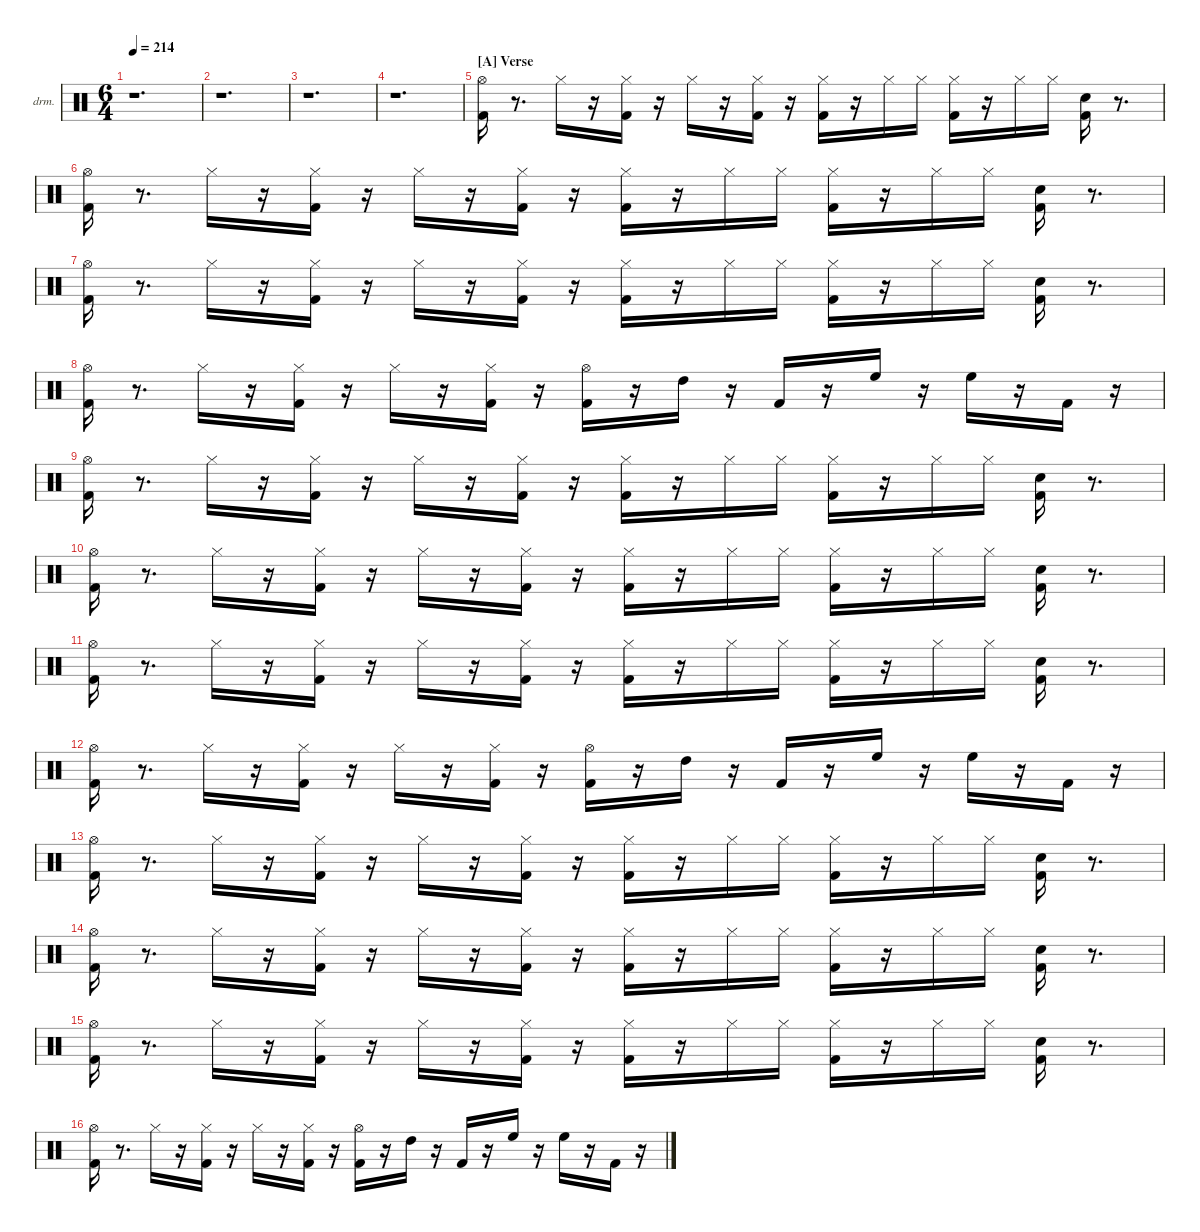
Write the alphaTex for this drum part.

\hideDynamics
\bracketExtendMode nobrackets
\firstSystemTrackNameOrientation horizontal
\otherSystemsTrackNameOrientation horizontal
\track ("EZdrummer 3" "drm.") {instrument percussion}
\staff {score}
\articulation defaults
\ts (6 4)
\tempo 214
\clef neutral
\ks aminor
r.1{d dy fff beam Down} |
r.1{d beam Down} |
r.1{d beam Down} |
r.1{d beam Down} |
\section ("A" "Verse")
("Kick (hit) 2" "Hi-Hat (open)"{acc #}).16{beam Down} r.8{d beam Down} "Hi-Hat (closed)"{acc #}.16{dy f beam Down} r.16{beam Down} ("Kick (hit) 2" "Hi-Hat (closed)"{acc #}).16{dy ff beam Down} r.16{beam Down} "Hi-Hat (closed)"{acc #}.16{beam Down} r.16{beam Down} ("Kick (hit) 2" "Hi-Hat (closed)"{acc #}).16{beam Down} r.16{beam Down} ("Kick (hit) 2" "Hi-Hat (closed)"{acc #}).16{beam Down} r.16{beam Down} "Hi-Hat (closed)"{acc #}.16{dy f beam Down} "Hi-Hat (closed)"{acc #}.16{dy mp beam Down} ("Kick (hit) 2" "Hi-Hat (closed)"{acc #}).16{dy ff beam Down} r.16{beam Down} "Hi-Hat (closed)"{acc #}.16{dy f beam Down} "Hi-Hat (closed)"{acc #}.16{dy mf beam Down} ("Kick (hit) 2" "Snare (hit) 2").16{dy ff beam Down} r.8{d beam Down} |
("Kick (hit) 2" "Hi-Hat (open)"{acc #}).16{beam Down} r.8{d beam Down} "Hi-Hat (closed)"{acc #}.16{dy f beam Down} r.16{beam Down} ("Kick (hit) 2" "Hi-Hat (closed)"{acc #}).16{dy ff beam Down} r.16{beam Down} "Hi-Hat (closed)"{acc #}.16{beam Down} r.16{beam Down} ("Kick (hit) 2" "Hi-Hat (closed)"{acc #}).16{beam Down} r.16{beam Down} ("Kick (hit) 2" "Hi-Hat (closed)"{acc #}).16{beam Down} r.16{beam Down} "Hi-Hat (closed)"{acc #}.16{dy f beam Down} "Hi-Hat (closed)"{acc #}.16{dy mp beam Down} ("Kick (hit) 2" "Hi-Hat (closed)"{acc #}).16{dy ff beam Down} r.16{beam Down} "Hi-Hat (closed)"{acc #}.16{dy f beam Down} "Hi-Hat (closed)"{acc #}.16{dy mf beam Down} ("Kick (hit) 2" "Snare (hit) 2").16{dy ff beam Down} r.8{d beam Down} |
("Kick (hit) 2" "Hi-Hat (open)"{acc #}).16{beam Down} r.8{d beam Down} "Hi-Hat (closed)"{acc #}.16{dy f beam Down} r.16{beam Down} ("Kick (hit) 2" "Hi-Hat (closed)"{acc #}).16{dy ff beam Down} r.16{beam Down} "Hi-Hat (closed)"{acc #}.16{beam Down} r.16{beam Down} ("Kick (hit) 2" "Hi-Hat (closed)"{acc #}).16{beam Down} r.16{beam Down} ("Kick (hit) 2" "Hi-Hat (closed)"{acc #}).16{beam Down} r.16{beam Down} "Hi-Hat (closed)"{acc #}.16{dy f beam Down} "Hi-Hat (closed)"{acc #}.16{dy mp beam Down} ("Kick (hit) 2" "Hi-Hat (closed)"{acc #}).16{dy ff beam Down} r.16{beam Down} "Hi-Hat (closed)"{acc #}.16{dy f beam Down} "Hi-Hat (closed)"{acc #}.16{dy mf beam Down} ("Kick (hit) 2" "Snare (hit) 2").16{dy ff beam Down} r.8{d beam Down} |
("Kick (hit) 2" "Hi-Hat (open)"{acc #}).16{beam Down} r.8{d beam Down} "Hi-Hat (closed)"{acc #}.16{dy f beam Down} r.16{beam Down} ("Kick (hit) 2" "Hi-Hat (closed)"{acc #}).16{dy ff beam Down} r.16{beam Down} "Hi-Hat (closed)"{acc #}.16{beam Down} r.16{beam Down} ("Kick (hit) 2" "Hi-Hat (closed)"{acc #}).16{beam Down} r.16{beam Down} ("Kick (hit) 2" "Hi-Hat (open)"{acc #}).16{beam Down} r.16{beam Down} "High Tom (hit)".16{beam Down} r.16{beam Down} "Kick (hit) 2".16{beam Up} r.16{beam Up} "High Floor Tom (hit)".16{dy mf beam Down} r.16{beam Down} "High Floor Tom (hit)".16{dy fff beam Down} r.16{beam Down} "Kick (hit) 2".16{dy mf beam Up} r.16{beam Up} |
("Kick (hit) 2" "Hi-Hat (open)"{acc #}).16{dy ff beam Down} r.8{d beam Down} "Hi-Hat (closed)"{acc #}.16{dy f beam Down} r.16{beam Down} ("Kick (hit) 2" "Hi-Hat (closed)"{acc #}).16{dy ff beam Down} r.16{beam Down} "Hi-Hat (closed)"{acc #}.16{beam Down} r.16{beam Down} ("Kick (hit) 2" "Hi-Hat (closed)"{acc #}).16{beam Down} r.16{beam Down} ("Kick (hit) 2" "Hi-Hat (closed)"{acc #}).16{beam Down} r.16{beam Down} "Hi-Hat (closed)"{acc #}.16{dy f beam Down} "Hi-Hat (closed)"{acc #}.16{dy mp beam Down} ("Kick (hit) 2" "Hi-Hat (closed)"{acc #}).16{dy ff beam Down} r.16{beam Down} "Hi-Hat (closed)"{acc #}.16{dy f beam Down} "Hi-Hat (closed)"{acc #}.16{dy mf beam Down} ("Kick (hit) 2" "Snare (hit) 2").16{dy ff beam Down} r.8{d beam Down} |
("Kick (hit) 2" "Hi-Hat (open)"{acc #}).16{beam Down} r.8{d beam Down} "Hi-Hat (closed)"{acc #}.16{dy f beam Down} r.16{beam Down} ("Kick (hit) 2" "Hi-Hat (closed)"{acc #}).16{dy ff beam Down} r.16{beam Down} "Hi-Hat (closed)"{acc #}.16{beam Down} r.16{beam Down} ("Kick (hit) 2" "Hi-Hat (closed)"{acc #}).16{beam Down} r.16{beam Down} ("Kick (hit) 2" "Hi-Hat (closed)"{acc #}).16{beam Down} r.16{beam Down} "Hi-Hat (closed)"{acc #}.16{dy f beam Down} "Hi-Hat (closed)"{acc #}.16{dy mp beam Down} ("Kick (hit) 2" "Hi-Hat (closed)"{acc #}).16{dy ff beam Down} r.16{beam Down} "Hi-Hat (closed)"{acc #}.16{dy f beam Down} "Hi-Hat (closed)"{acc #}.16{dy mf beam Down} ("Kick (hit) 2" "Snare (hit) 2").16{dy ff beam Down} r.8{d beam Down} |
("Kick (hit) 2" "Hi-Hat (open)"{acc #}).16{beam Down} r.8{d beam Down} "Hi-Hat (closed)"{acc #}.16{dy f beam Down} r.16{beam Down} ("Kick (hit) 2" "Hi-Hat (closed)"{acc #}).16{dy ff beam Down} r.16{beam Down} "Hi-Hat (closed)"{acc #}.16{beam Down} r.16{beam Down} ("Kick (hit) 2" "Hi-Hat (closed)"{acc #}).16{beam Down} r.16{beam Down} ("Kick (hit) 2" "Hi-Hat (closed)"{acc #}).16{beam Down} r.16{beam Down} "Hi-Hat (closed)"{acc #}.16{dy f beam Down} "Hi-Hat (closed)"{acc #}.16{dy mp beam Down} ("Kick (hit) 2" "Hi-Hat (closed)"{acc #}).16{dy ff beam Down} r.16{beam Down} "Hi-Hat (closed)"{acc #}.16{dy f beam Down} "Hi-Hat (closed)"{acc #}.16{dy mf beam Down} ("Kick (hit) 2" "Snare (hit) 2").16{dy ff beam Down} r.8{d beam Down} |
("Kick (hit) 2" "Hi-Hat (open)"{acc #}).16{beam Down} r.8{d beam Down} "Hi-Hat (closed)"{acc #}.16{dy f beam Down} r.16{beam Down} ("Kick (hit) 2" "Hi-Hat (closed)"{acc #}).16{dy ff beam Down} r.16{beam Down} "Hi-Hat (closed)"{acc #}.16{beam Down} r.16{beam Down} ("Kick (hit) 2" "Hi-Hat (closed)"{acc #}).16{beam Down} r.16{beam Down} ("Kick (hit) 2" "Hi-Hat (open)"{acc #}).16{beam Down} r.16{beam Down} "High Tom (hit)".16{beam Down} r.16{beam Down} "Kick (hit) 2".16{beam Up} r.16{beam Up} "High Floor Tom (hit)".16{dy mf beam Down} r.16{beam Down} "High Floor Tom (hit)".16{dy fff beam Down} r.16{beam Down} "Kick (hit) 2".16{dy mf beam Up} r.16{beam Up} |
("Kick (hit) 2" "Hi-Hat (open)"{acc #}).16{dy ff beam Down} r.8{d beam Down} "Hi-Hat (closed)"{acc #}.16{dy f beam Down} r.16{beam Down} ("Kick (hit) 2" "Hi-Hat (closed)"{acc #}).16{dy ff beam Down} r.16{beam Down} "Hi-Hat (closed)"{acc #}.16{beam Down} r.16{beam Down} ("Kick (hit) 2" "Hi-Hat (closed)"{acc #}).16{beam Down} r.16{beam Down} ("Kick (hit) 2" "Hi-Hat (closed)"{acc #}).16{beam Down} r.16{beam Down} "Hi-Hat (closed)"{acc #}.16{dy f beam Down} "Hi-Hat (closed)"{acc #}.16{dy mp beam Down} ("Kick (hit) 2" "Hi-Hat (closed)"{acc #}).16{dy ff beam Down} r.16{beam Down} "Hi-Hat (closed)"{acc #}.16{dy f beam Down} "Hi-Hat (closed)"{acc #}.16{dy mf beam Down} ("Kick (hit) 2" "Snare (hit) 2").16{dy ff beam Down} r.8{d beam Down} |
("Kick (hit) 2" "Hi-Hat (open)"{acc #}).16{beam Down} r.8{d beam Down} "Hi-Hat (closed)"{acc #}.16{dy f beam Down} r.16{beam Down} ("Kick (hit) 2" "Hi-Hat (closed)"{acc #}).16{dy ff beam Down} r.16{beam Down} "Hi-Hat (closed)"{acc #}.16{beam Down} r.16{beam Down} ("Kick (hit) 2" "Hi-Hat (closed)"{acc #}).16{beam Down} r.16{beam Down} ("Kick (hit) 2" "Hi-Hat (closed)"{acc #}).16{beam Down} r.16{beam Down} "Hi-Hat (closed)"{acc #}.16{dy f beam Down} "Hi-Hat (closed)"{acc #}.16{dy mp beam Down} ("Kick (hit) 2" "Hi-Hat (closed)"{acc #}).16{dy ff beam Down} r.16{beam Down} "Hi-Hat (closed)"{acc #}.16{dy f beam Down} "Hi-Hat (closed)"{acc #}.16{dy mf beam Down} ("Kick (hit) 2" "Snare (hit) 2").16{dy ff beam Down} r.8{d beam Down} |
("Kick (hit) 2" "Hi-Hat (open)"{acc #}).16{beam Down} r.8{d beam Down} "Hi-Hat (closed)"{acc #}.16{dy f beam Down} r.16{beam Down} ("Kick (hit) 2" "Hi-Hat (closed)"{acc #}).16{dy ff beam Down} r.16{beam Down} "Hi-Hat (closed)"{acc #}.16{beam Down} r.16{beam Down} ("Kick (hit) 2" "Hi-Hat (closed)"{acc #}).16{beam Down} r.16{beam Down} ("Kick (hit) 2" "Hi-Hat (closed)"{acc #}).16{beam Down} r.16{beam Down} "Hi-Hat (closed)"{acc #}.16{dy f beam Down} "Hi-Hat (closed)"{acc #}.16{dy mp beam Down} ("Kick (hit) 2" "Hi-Hat (closed)"{acc #}).16{dy ff beam Down} r.16{beam Down} "Hi-Hat (closed)"{acc #}.16{dy f beam Down} "Hi-Hat (closed)"{acc #}.16{dy mf beam Down} ("Kick (hit) 2" "Snare (hit) 2").16{dy ff beam Down} r.8{d beam Down} |
("Kick (hit) 2" "Hi-Hat (open)"{acc #}).16{beam Down} r.8{d beam Down} "Hi-Hat (closed)"{acc #}.16{dy f beam Down} r.16{beam Down} ("Kick (hit) 2" "Hi-Hat (closed)"{acc #}).16{dy ff beam Down} r.16{beam Down} "Hi-Hat (closed)"{acc #}.16{beam Down} r.16{beam Down} ("Kick (hit) 2" "Hi-Hat (closed)"{acc #}).16{beam Down} r.16{beam Down} ("Kick (hit) 2" "Hi-Hat (open)"{acc #}).16{beam Down} r.16{beam Down} "High Tom (hit)".16{beam Down} r.16{beam Down} "Kick (hit) 2".16{beam Up} r.16{beam Up} "High Floor Tom (hit)".16{dy mf beam Down} r.16{beam Down} "High Floor Tom (hit)".16{dy fff beam Down} r.16{beam Down} "Kick (hit) 2".16{dy mf beam Up} r.16{beam Up}
